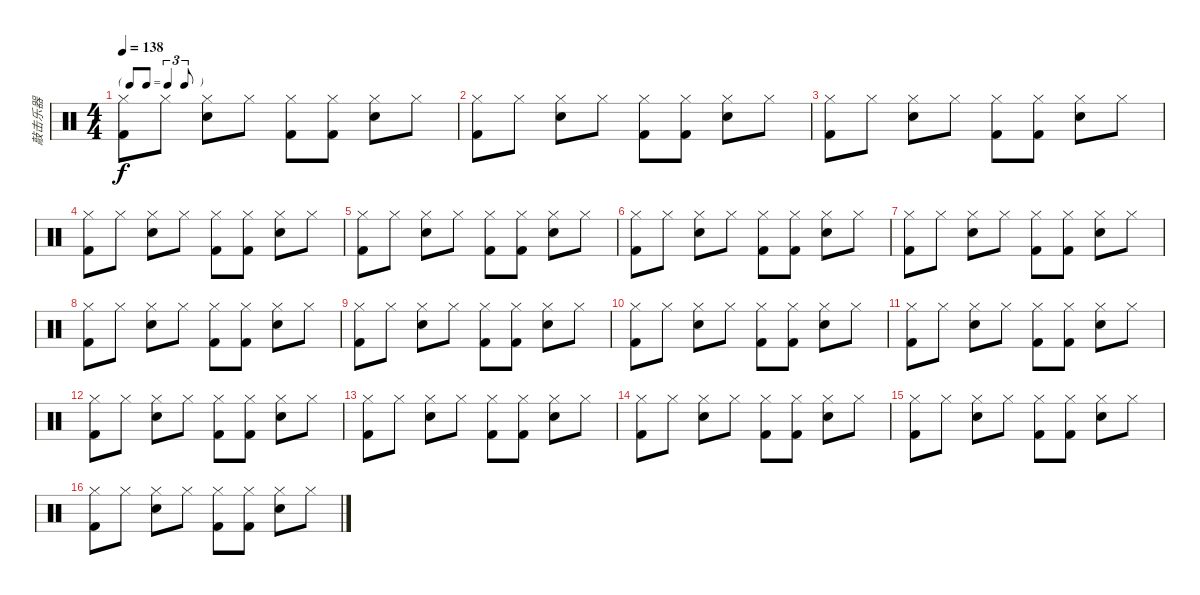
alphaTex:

\track ("敲击乐器" "敲击乐器") {instrument percussion}
\staff {score}
\articulation defaults
\ts (4 4)
\tf triplet8th
\tempo 138
\clef neutral
\ks c
("Hi-Hat (closed)" "Kick (hit) 2").8{dy f} "Hi-Hat (closed)".8 ("Hi-Hat (closed)" "Electric Snare (hit)").8 "Hi-Hat (closed)".8 ("Hi-Hat (closed)" "Kick (hit) 2").8 ("Hi-Hat (closed)" "Kick (hit) 2").8 ("Hi-Hat (closed)" "Electric Snare (hit)").8 "Hi-Hat (closed)".8 |
("Hi-Hat (closed)" "Kick (hit) 2").8 "Hi-Hat (closed)".8 ("Hi-Hat (closed)" "Electric Snare (hit)").8 "Hi-Hat (closed)".8 ("Hi-Hat (closed)" "Kick (hit) 2").8 ("Hi-Hat (closed)" "Kick (hit) 2").8 ("Hi-Hat (closed)" "Electric Snare (hit)").8 "Hi-Hat (closed)".8 |
("Hi-Hat (closed)" "Kick (hit) 2").8 "Hi-Hat (closed)".8 ("Hi-Hat (closed)" "Electric Snare (hit)").8 "Hi-Hat (closed)".8 ("Hi-Hat (closed)" "Kick (hit) 2").8 ("Hi-Hat (closed)" "Kick (hit) 2").8 ("Hi-Hat (closed)" "Electric Snare (hit)").8 "Hi-Hat (closed)".8 |
("Hi-Hat (closed)" "Kick (hit) 2").8 "Hi-Hat (closed)".8 ("Hi-Hat (closed)" "Electric Snare (hit)").8 "Hi-Hat (closed)".8 ("Hi-Hat (closed)" "Kick (hit) 2").8 ("Hi-Hat (closed)" "Kick (hit) 2").8 ("Hi-Hat (closed)" "Electric Snare (hit)").8 "Hi-Hat (closed)".8 |
("Hi-Hat (closed)" "Kick (hit) 2").8 "Hi-Hat (closed)".8 ("Hi-Hat (closed)" "Electric Snare (hit)").8 "Hi-Hat (closed)".8 ("Hi-Hat (closed)" "Kick (hit) 2").8 ("Hi-Hat (closed)" "Kick (hit) 2").8 ("Hi-Hat (closed)" "Electric Snare (hit)").8 "Hi-Hat (closed)".8 |
("Hi-Hat (closed)" "Kick (hit) 2").8 "Hi-Hat (closed)".8 ("Hi-Hat (closed)" "Electric Snare (hit)").8 "Hi-Hat (closed)".8 ("Hi-Hat (closed)" "Kick (hit) 2").8 ("Hi-Hat (closed)" "Kick (hit) 2").8 ("Hi-Hat (closed)" "Electric Snare (hit)").8 "Hi-Hat (closed)".8 |
("Hi-Hat (closed)" "Kick (hit) 2").8 "Hi-Hat (closed)".8 ("Hi-Hat (closed)" "Electric Snare (hit)").8 "Hi-Hat (closed)".8 ("Hi-Hat (closed)" "Kick (hit) 2").8 ("Hi-Hat (closed)" "Kick (hit) 2").8 ("Hi-Hat (closed)" "Electric Snare (hit)").8 "Hi-Hat (closed)".8 |
("Hi-Hat (closed)" "Kick (hit) 2").8 "Hi-Hat (closed)".8 ("Hi-Hat (closed)" "Electric Snare (hit)").8 "Hi-Hat (closed)".8 ("Hi-Hat (closed)" "Kick (hit) 2").8 ("Hi-Hat (closed)" "Kick (hit) 2").8 ("Hi-Hat (closed)" "Electric Snare (hit)").8 "Hi-Hat (closed)".8 |
("Hi-Hat (closed)" "Kick (hit) 2").8 "Hi-Hat (closed)".8 ("Hi-Hat (closed)" "Electric Snare (hit)").8 "Hi-Hat (closed)".8 ("Hi-Hat (closed)" "Kick (hit) 2").8 ("Hi-Hat (closed)" "Kick (hit) 2").8 ("Hi-Hat (closed)" "Electric Snare (hit)").8 "Hi-Hat (closed)".8 |
("Hi-Hat (closed)" "Kick (hit) 2").8 "Hi-Hat (closed)".8 ("Hi-Hat (closed)" "Electric Snare (hit)").8 "Hi-Hat (closed)".8 ("Hi-Hat (closed)" "Kick (hit) 2").8 ("Hi-Hat (closed)" "Kick (hit) 2").8 ("Hi-Hat (closed)" "Electric Snare (hit)").8 "Hi-Hat (closed)".8 |
("Hi-Hat (closed)" "Kick (hit) 2").8 "Hi-Hat (closed)".8 ("Hi-Hat (closed)" "Electric Snare (hit)").8 "Hi-Hat (closed)".8 ("Hi-Hat (closed)" "Kick (hit) 2").8 ("Hi-Hat (closed)" "Kick (hit) 2").8 ("Hi-Hat (closed)" "Electric Snare (hit)").8 "Hi-Hat (closed)".8 |
("Hi-Hat (closed)" "Kick (hit) 2").8 "Hi-Hat (closed)".8 ("Hi-Hat (closed)" "Electric Snare (hit)").8 "Hi-Hat (closed)".8 ("Hi-Hat (closed)" "Kick (hit) 2").8 ("Hi-Hat (closed)" "Kick (hit) 2").8 ("Hi-Hat (closed)" "Electric Snare (hit)").8 "Hi-Hat (closed)".8 |
("Hi-Hat (closed)" "Kick (hit) 2").8 "Hi-Hat (closed)".8 ("Hi-Hat (closed)" "Electric Snare (hit)").8 "Hi-Hat (closed)".8 ("Hi-Hat (closed)" "Kick (hit) 2").8 ("Hi-Hat (closed)" "Kick (hit) 2").8 ("Hi-Hat (closed)" "Electric Snare (hit)").8 "Hi-Hat (closed)".8 |
("Hi-Hat (closed)" "Kick (hit) 2").8 "Hi-Hat (closed)".8 ("Hi-Hat (closed)" "Electric Snare (hit)").8 "Hi-Hat (closed)".8 ("Hi-Hat (closed)" "Kick (hit) 2").8 ("Hi-Hat (closed)" "Kick (hit) 2").8 ("Hi-Hat (closed)" "Electric Snare (hit)").8 "Hi-Hat (closed)".8 |
("Hi-Hat (closed)" "Kick (hit) 2").8 "Hi-Hat (closed)".8 ("Hi-Hat (closed)" "Electric Snare (hit)").8 "Hi-Hat (closed)".8 ("Hi-Hat (closed)" "Kick (hit) 2").8 ("Hi-Hat (closed)" "Kick (hit) 2").8 ("Hi-Hat (closed)" "Electric Snare (hit)").8 "Hi-Hat (closed)".8 |
("Hi-Hat (closed)" "Kick (hit) 2").8 "Hi-Hat (closed)".8 ("Hi-Hat (closed)" "Electric Snare (hit)").8 "Hi-Hat (closed)".8 ("Hi-Hat (closed)" "Kick (hit) 2").8 ("Hi-Hat (closed)" "Kick (hit) 2").8 ("Hi-Hat (closed)" "Electric Snare (hit)").8 "Hi-Hat (closed)".8
